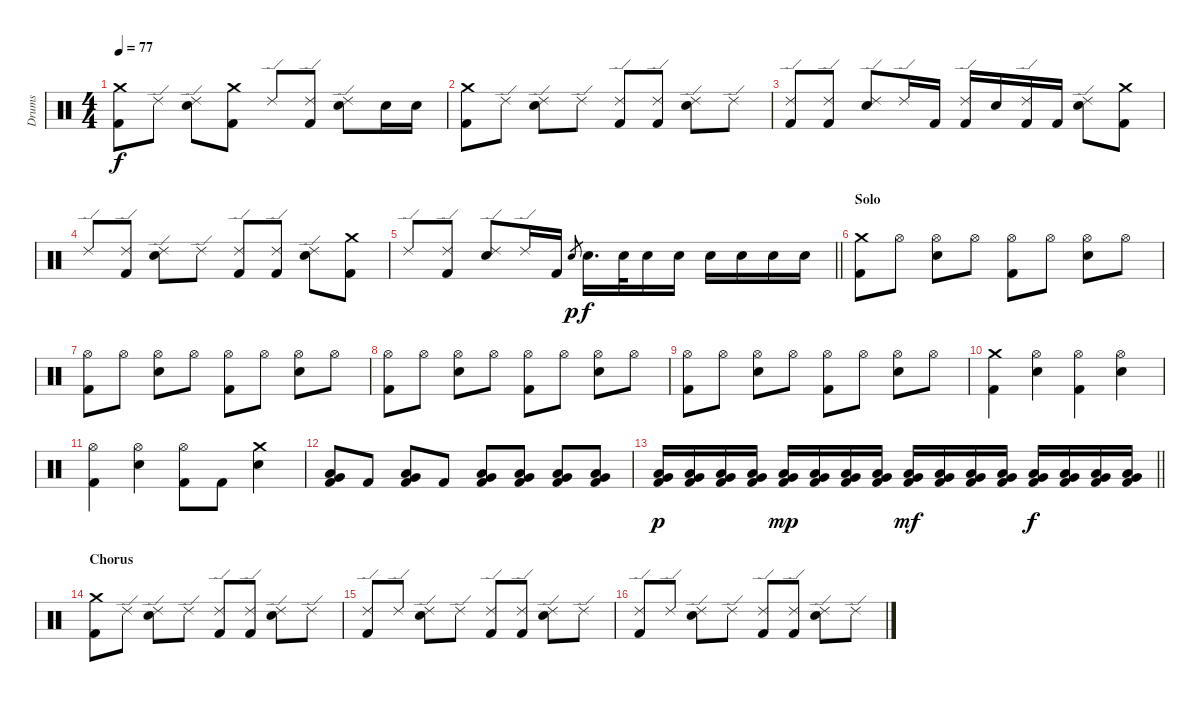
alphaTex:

\track ("Drums" "Drums") {instrument percussion}
\staff {score}
\articulation defaults
\ts (4 4)
\tempo 77
\clef neutral
\ks c
("Crash medium (hit)" "Kick (hit) 2").8{dy f} "Ride (edge) 2".8 ("Ride (edge) 2" "Electric Snare (hit)").8 ("Crash medium (hit)" "Kick (hit) 2").8 "Ride (edge) 2".8 ("Ride (edge) 2" "Kick (hit) 2").8 ("Ride (edge) 2" "Electric Snare (hit)").8 "Electric Snare (hit)".16 "Electric Snare (hit)".16 |
("Crash medium (hit)" "Kick (hit) 2").8 "Ride (edge) 2".8 ("Ride (edge) 2" "Electric Snare (hit)").8 "Ride (edge) 2".8 ("Ride (edge) 2" "Kick (hit) 2").8 ("Ride (edge) 2" "Kick (hit) 2").8 ("Ride (edge) 2" "Electric Snare (hit)").8 "Ride (edge) 2".8 |
("Ride (edge) 2" "Kick (hit) 2").8 ("Ride (edge) 2" "Kick (hit) 2").8 ("Ride (edge) 2" "Electric Snare (hit)").8 "Ride (edge) 2".16 "Kick (hit) 2".16 ("Ride (edge) 2" "Kick (hit) 2").16 "Electric Snare (hit)".16 ("Ride (edge) 2" "Kick (hit) 2").16 "Kick (hit) 2".16 ("Ride (edge) 2" "Electric Snare (hit)").8 ("Crash medium (hit)" "Kick (hit) 2").8 |
"Ride (edge) 2".8 ("Ride (edge) 2" "Kick (hit) 2").8 ("Ride (edge) 2" "Electric Snare (hit)").8 "Ride (edge) 2".8 ("Ride (edge) 2" "Kick (hit) 2").8 ("Ride (edge) 2" "Kick (hit) 2").8 ("Ride (edge) 2" "Electric Snare (hit)").8 ("Crash medium (hit)" "Kick (hit) 2").8 |
\barLineRight lightlight "Ride (edge) 2".8
("Ride (edge) 2" "Kick (hit) 2").8 ("Ride (edge) 2" "Electric Snare (hit)").8 "Ride (edge) 2".16 "Kick (hit) 2".16 "Electric Snare (hit)".8{gr dy p} "Electric Snare (hit)".16{d dy f} "Electric Snare (hit)".32 "Electric Snare (hit)".16 "Electric Snare (hit)".16 "Electric Snare (hit)".16 "Electric Snare (hit)".16 "Electric Snare (hit)".16 "Electric Snare (hit)".16 |
\section ("" "Solo")
("Crash medium (hit)" "Kick (hit) 2").8 "Hi-Hat (open)".8 ("Hi-Hat (open)" "Electric Snare (hit)").8 "Hi-Hat (open)".8 ("Hi-Hat (open)" "Kick (hit) 2").8 "Hi-Hat (open)".8 ("Hi-Hat (open)" "Electric Snare (hit)").8 "Hi-Hat (open)".8 |
("Hi-Hat (open)" "Kick (hit) 2").8 "Hi-Hat (open)".8 ("Hi-Hat (open)" "Electric Snare (hit)").8 "Hi-Hat (open)".8 ("Hi-Hat (open)" "Kick (hit) 2").8 "Hi-Hat (open)".8 ("Hi-Hat (open)" "Electric Snare (hit)").8 "Hi-Hat (open)".8 |
("Hi-Hat (open)" "Kick (hit) 2").8 "Hi-Hat (open)".8 ("Hi-Hat (open)" "Electric Snare (hit)").8 "Hi-Hat (open)".8 ("Hi-Hat (open)" "Kick (hit) 2").8 "Hi-Hat (open)".8 ("Hi-Hat (open)" "Electric Snare (hit)").8 "Hi-Hat (open)".8 |
("Hi-Hat (open)" "Kick (hit) 2").8 "Hi-Hat (open)".8 ("Hi-Hat (open)" "Electric Snare (hit)").8 "Hi-Hat (open)".8 ("Hi-Hat (open)" "Kick (hit) 2").8 "Hi-Hat (open)".8 ("Hi-Hat (open)" "Electric Snare (hit)").8 "Hi-Hat (open)".8 |
("Crash medium (hit)" "Kick (hit) 2").4 ("Hi-Hat (open)" "Electric Snare (hit)").4 ("Hi-Hat (open)" "Kick (hit) 2").4 ("Hi-Hat (open)" "Electric Snare (hit)").4 |
("Hi-Hat (open)" "Kick (hit) 2").4 ("Hi-Hat (open)" "Electric Snare (hit)").4 ("Hi-Hat (open)" "Kick (hit) 2").8 "Kick (hit) 2".8 ("Crash medium (hit)" "Electric Snare (hit)").4 |
("Very Low Tom (hit)" "Low Floor Tom (hit)" "Kick (hit) 2").8 "Kick (hit) 2".8 ("Very Low Tom (hit)" "Low Floor Tom (hit)" "Kick (hit) 2").8 "Kick (hit) 2".8 ("Very Low Tom (hit)" "Low Floor Tom (hit)" "Kick (hit) 2").8 ("Very Low Tom (hit)" "Low Floor Tom (hit)" "Kick (hit) 2").8 ("Very Low Tom (hit)" "Low Floor Tom (hit)" "Kick (hit) 2").8 ("Very Low Tom (hit)" "Low Floor Tom (hit)" "Kick (hit) 2").8 |
\barLineRight lightlight
("Low Tom (hit)" "Very Low Tom (hit)" "Kick (hit) 2").16{dy p} ("Low Tom (hit)" "Very Low Tom (hit)" "Kick (hit) 2").16 ("Low Tom (hit)" "Very Low Tom (hit)" "Kick (hit) 2").16 ("Low Tom (hit)" "Very Low Tom (hit)" "Kick (hit) 2").16 ("Low Tom (hit)" "Very Low Tom (hit)" "Kick (hit) 2").16{dy mp} ("Low Tom (hit)" "Very Low Tom (hit)" "Kick (hit) 2").16 ("Low Tom (hit)" "Very Low Tom (hit)" "Kick (hit) 2").16 ("Low Tom (hit)" "Very Low Tom (hit)" "Kick (hit) 2").16 ("Low Tom (hit)" "Very Low Tom (hit)" "Kick (hit) 2").16{dy mf} ("Low Tom (hit)" "Very Low Tom (hit)" "Kick (hit) 2").16 ("Low Tom (hit)" "Very Low Tom (hit)" "Kick (hit) 2").16 ("Low Tom (hit)" "Very Low Tom (hit)" "Kick (hit) 2").16 ("Low Tom (hit)" "Very Low Tom (hit)" "Kick (hit) 2").16{dy f} ("Low Tom (hit)" "Very Low Tom (hit)" "Kick (hit) 2").16 ("Low Tom (hit)" "Very Low Tom (hit)" "Kick (hit) 2").16 ("Low Tom (hit)" "Very Low Tom (hit)" "Kick (hit) 2").16 |
\section ("" "Chorus")
("Crash medium (hit)" "Kick (hit) 2").8 "Ride (edge) 2".8 ("Ride (edge) 2" "Electric Snare (hit)").8 "Ride (edge) 2".8 ("Ride (edge) 2" "Kick (hit) 2").8 ("Ride (edge) 2" "Kick (hit) 2").8 ("Ride (edge) 2" "Electric Snare (hit)").8 "Ride (edge) 2".8 |
("Ride (edge) 2" "Kick (hit) 2").8 "Ride (edge) 2".8 ("Ride (edge) 2" "Electric Snare (hit)").8 "Ride (edge) 2".8 ("Ride (edge) 2" "Kick (hit) 2").8 ("Ride (edge) 2" "Kick (hit) 2").8 ("Ride (edge) 2" "Electric Snare (hit)").8 "Ride (edge) 2".8 |
("Ride (edge) 2" "Kick (hit) 2").8 "Ride (edge) 2".8 ("Ride (edge) 2" "Electric Snare (hit)").8 "Ride (edge) 2".8 ("Ride (edge) 2" "Kick (hit) 2").8 ("Ride (edge) 2" "Kick (hit) 2").8 ("Ride (edge) 2" "Electric Snare (hit)").8 "Ride (edge) 2".8
